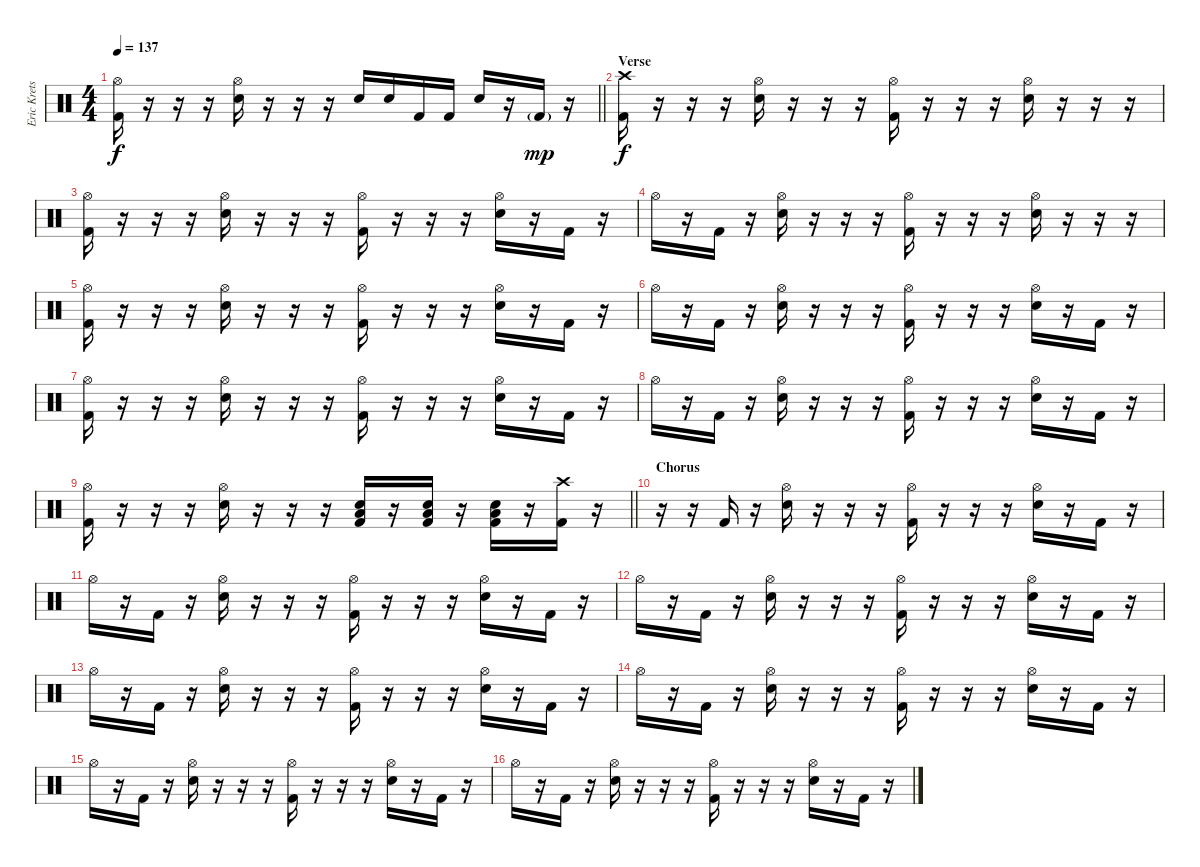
\track ("Eric Krets" "Eric Krets") {instrument percussion}
\staff {score}
\articulation defaults
\ts (4 4)
\tempo 137
\clef neutral
\barLineRight lightlight
\ks c
("Hi-Hat (open)" "Kick (hit) 2").16{dy f} r.16 r.16 r.16 ("Hi-Hat (open)" "Electric Snare (hit)").16 r.16 r.16 r.16 "Electric Snare (hit)".16 "Electric Snare (hit)".16 "Kick (hit) 2".16 "Kick (hit) 2".16 "Electric Snare (hit)".16 r.16 "Kick (hit) 2"{g}.16{dy mp} r.16 |
\section ("" "Verse")
("Crash high (hit)" "Kick (hit) 2").16{dy f} r.16 r.16 r.16 ("Hi-Hat (open)" "Electric Snare (hit)").16 r.16 r.16 r.16 ("Hi-Hat (open)" "Kick (hit) 2").16 r.16 r.16 r.16 ("Hi-Hat (open)" "Electric Snare (hit)").16 r.16 r.16 r.16 |
("Hi-Hat (open)" "Kick (hit) 2").16 r.16 r.16 r.16 ("Hi-Hat (open)" "Electric Snare (hit)").16 r.16 r.16 r.16 ("Hi-Hat (open)" "Kick (hit) 2").16 r.16 r.16 r.16 ("Hi-Hat (open)" "Electric Snare (hit)").16 r.16 "Kick (hit) 2".16 r.16 |
"Hi-Hat (open)".16 r.16 "Kick (hit) 2".16 r.16 ("Hi-Hat (open)" "Electric Snare (hit)").16 r.16 r.16 r.16 ("Hi-Hat (open)" "Kick (hit) 2").16 r.16 r.16 r.16 ("Hi-Hat (open)" "Electric Snare (hit)").16 r.16 r.16 r.16 |
("Hi-Hat (open)" "Kick (hit) 2").16 r.16 r.16 r.16 ("Hi-Hat (open)" "Electric Snare (hit)").16 r.16 r.16 r.16 ("Hi-Hat (open)" "Kick (hit) 2").16 r.16 r.16 r.16 ("Hi-Hat (open)" "Electric Snare (hit)").16 r.16 "Kick (hit) 2".16 r.16 |
"Hi-Hat (open)".16 r.16 "Kick (hit) 2".16 r.16 ("Hi-Hat (open)" "Electric Snare (hit)").16 r.16 r.16 r.16 ("Hi-Hat (open)" "Kick (hit) 2").16 r.16 r.16 r.16 ("Hi-Hat (open)" "Electric Snare (hit)").16 r.16 "Kick (hit) 2".16 r.16 |
("Hi-Hat (open)" "Kick (hit) 2").16 r.16 r.16 r.16 ("Hi-Hat (open)" "Electric Snare (hit)").16 r.16 r.16 r.16 ("Hi-Hat (open)" "Kick (hit) 2").16 r.16 r.16 r.16 ("Hi-Hat (open)" "Electric Snare (hit)").16 r.16 "Kick (hit) 2".16 r.16 |
"Hi-Hat (open)".16 r.16 "Kick (hit) 2".16 r.16 ("Hi-Hat (open)" "Electric Snare (hit)").16 r.16 r.16 r.16 ("Hi-Hat (open)" "Kick (hit) 2").16 r.16 r.16 r.16 ("Hi-Hat (open)" "Electric Snare (hit)").16 r.16 "Kick (hit) 2".16 r.16 |
\barLineRight lightlight
("Hi-Hat (open)" "Kick (hit) 2").16 r.16 r.16 r.16 ("Hi-Hat (open)" "Electric Snare (hit)").16 r.16 r.16 r.16 ("Low Tom (hit)" "Electric Snare (hit)" "Kick (hit) 2").16 r.16 ("Low Tom (hit)" "Electric Snare (hit)" "Kick (hit) 2").16 r.16 ("Low Tom (hit)" "Electric Snare (hit)" "Kick (hit) 2").16 r.16 ("Crash high (hit)" "Kick (hit) 2").16 r.16 |
\section ("" "Chorus")
r.16 r.16 "Kick (hit) 2".16 r.16 ("Hi-Hat (open)" "Electric Snare (hit)").16 r.16 r.16 r.16 ("Hi-Hat (open)" "Kick (hit) 2").16 r.16 r.16 r.16 ("Hi-Hat (open)" "Electric Snare (hit)").16 r.16 "Kick (hit) 2".16 r.16 |
"Hi-Hat (open)".16 r.16 "Kick (hit) 2".16 r.16 ("Hi-Hat (open)" "Electric Snare (hit)").16 r.16 r.16 r.16 ("Hi-Hat (open)" "Kick (hit) 2").16 r.16 r.16 r.16 ("Hi-Hat (open)" "Electric Snare (hit)").16 r.16 "Kick (hit) 2".16 r.16 |
"Hi-Hat (open)".16 r.16 "Kick (hit) 2".16 r.16 ("Hi-Hat (open)" "Electric Snare (hit)").16 r.16 r.16 r.16 ("Hi-Hat (open)" "Kick (hit) 2").16 r.16 r.16 r.16 ("Hi-Hat (open)" "Electric Snare (hit)").16 r.16 "Kick (hit) 2".16 r.16 |
"Hi-Hat (open)".16 r.16 "Kick (hit) 2".16 r.16 ("Hi-Hat (open)" "Electric Snare (hit)").16 r.16 r.16 r.16 ("Hi-Hat (open)" "Kick (hit) 2").16 r.16 r.16 r.16 ("Hi-Hat (open)" "Electric Snare (hit)").16 r.16 "Kick (hit) 2".16 r.16 |
"Hi-Hat (open)".16 r.16 "Kick (hit) 2".16 r.16 ("Hi-Hat (open)" "Electric Snare (hit)").16 r.16 r.16 r.16 ("Hi-Hat (open)" "Kick (hit) 2").16 r.16 r.16 r.16 ("Hi-Hat (open)" "Electric Snare (hit)").16 r.16 "Kick (hit) 2".16 r.16 |
"Hi-Hat (open)".16 r.16 "Kick (hit) 2".16 r.16 ("Hi-Hat (open)" "Electric Snare (hit)").16 r.16 r.16 r.16 ("Hi-Hat (open)" "Kick (hit) 2").16 r.16 r.16 r.16 ("Hi-Hat (open)" "Electric Snare (hit)").16 r.16 "Kick (hit) 2".16 r.16 |
"Hi-Hat (open)".16 r.16 "Kick (hit) 2".16 r.16 ("Hi-Hat (open)" "Electric Snare (hit)").16 r.16 r.16 r.16 ("Hi-Hat (open)" "Kick (hit) 2").16 r.16 r.16 r.16 ("Hi-Hat (open)" "Electric Snare (hit)").16 r.16 "Kick (hit) 2".16 r.16
